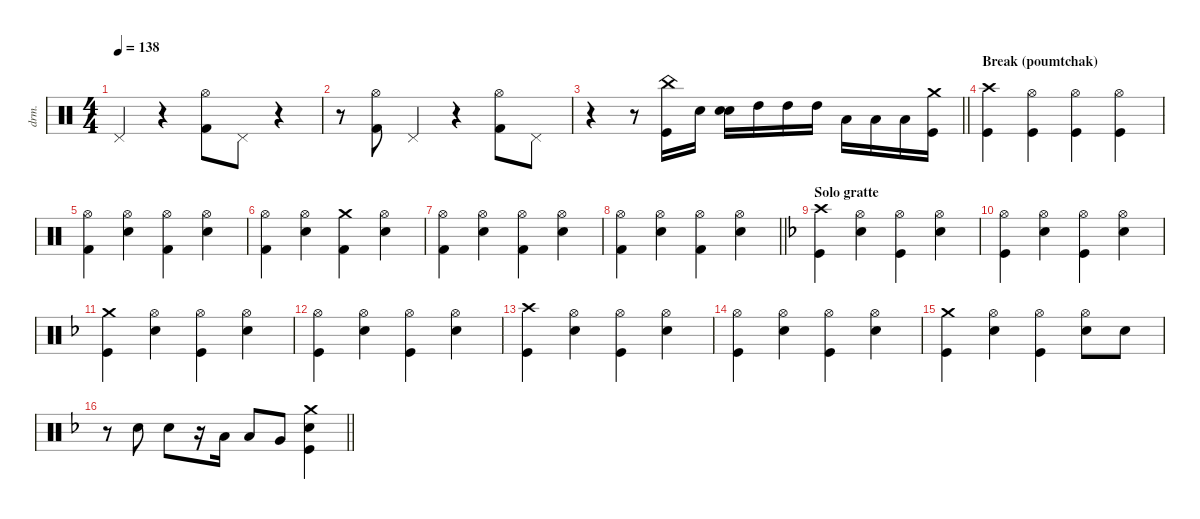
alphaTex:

\defaultSystemsLayout 4
\hideDynamics
\bracketExtendMode nobrackets
\track ("Percussions" "drm.") {instrument percussion}
\staff {score}
\articulation defaults
\ts (4 4)
\tempo 138
\clef neutral
\ks aminor "Pedal Hi-Hat (hit)".4{dy f beam Up}
r.4{beam Up} ("Kick (hit) 2" "Hi-Hat (open)").8{beam Down} "Pedal Hi-Hat (hit)".8{beam Down} r.4{beam Down} |
r.8{beam Down} ("Kick (hit) 2" "Hi-Hat (open)").8{beam Down} "Pedal Hi-Hat (hit)".4{beam Up} r.4{beam Up} ("Kick (hit) 2" "Hi-Hat (open)").8{beam Down} "Pedal Hi-Hat (hit)".8{beam Down} |
\barLineRight lightlight
r.4{beam Down} r.8{beam Down} ("China (hit)" "Kick (hit)").16{beam Down} "Snare (hit) 2".16{beam Down} ("Snare (hit) 2" "Snare (hit) 2").16{beam Down} "High Tom (hit)".16{beam Down} "High Tom (hit)".16{beam Down} "High Tom (hit)".16{beam Down} "Low Tom (hit)".16{beam Down} "Low Tom (hit)".16{beam Down} "Low Tom (hit)".16{beam Down} ("Kick (hit)" "Crash medium (hit)").16{beam Down} |
\section ("" "Break (poumtchak)")
("Crash high (hit)" "Kick (hit)").4{beam Down} ("Hi-Hat (open)" "Kick (hit)").4{beam Down} ("Hi-Hat (open)" "Kick (hit)").4{beam Down} ("Hi-Hat (open)" "Kick (hit)").4{beam Down} |
("Hi-Hat (open)" "Kick (hit) 2").4{beam Down} ("Hi-Hat (open)" "Snare (hit) 2").4{beam Down} ("Hi-Hat (open)" "Kick (hit) 2").4{beam Down} ("Hi-Hat (open)" "Snare (hit) 2").4{beam Down} |
("Hi-Hat (open)" "Kick (hit) 2").4{beam Down} ("Hi-Hat (open)" "Snare (hit) 2").4{beam Down} ("Crash medium (hit)" "Kick (hit) 2").4{beam Down} ("Hi-Hat (open)" "Snare (hit) 2").4{beam Down} |
("Hi-Hat (open)" "Kick (hit) 2").4{beam Down} ("Hi-Hat (open)" "Snare (hit) 2").4{beam Down} ("Hi-Hat (open)" "Kick (hit) 2").4{beam Down} ("Hi-Hat (open)" "Snare (hit) 2").4{beam Down} |
\barLineRight lightlight
("Hi-Hat (open)" "Kick (hit) 2").4{beam Down} ("Hi-Hat (open)" "Snare (hit) 2").4{beam Down} ("Hi-Hat (open)" "Kick (hit) 2").4{beam Down} ("Hi-Hat (open)" "Snare (hit) 2").4{beam Down} |
\section ("" "Solo gratte")
\ks dminor
("Crash high (hit)"{acc forcenatural} "Kick (hit)"{acc forcenatural}).4{beam Down} ("Hi-Hat (open)"{acc forcenatural} "Snare (hit) 2"{acc forcenatural}).4{beam Down} ("Hi-Hat (open)"{acc forcenatural} "Kick (hit)"{acc forcenatural}).4{beam Down} ("Hi-Hat (open)"{acc forcenatural} "Snare (hit) 2"{acc forcenatural}).4{beam Down} |
("Hi-Hat (open)"{acc forcenatural} "Kick (hit)"{acc forcenatural}).4{beam Down} ("Hi-Hat (open)"{acc forcenatural} "Snare (hit) 2"{acc forcenatural}).4{beam Down} ("Hi-Hat (open)"{acc forcenatural} "Kick (hit)"{acc forcenatural}).4{beam Down} ("Hi-Hat (open)"{acc forcenatural} "Snare (hit) 2"{acc forcenatural}).4{beam Down} |
("Crash medium (hit)"{acc forcenatural} "Kick (hit)"{acc forcenatural}).4{beam Down} ("Hi-Hat (open)"{acc forcenatural} "Snare (hit) 2"{acc forcenatural}).4{beam Down} ("Hi-Hat (open)"{acc forcenatural} "Kick (hit)"{acc forcenatural}).4{beam Down} ("Hi-Hat (open)"{acc forcenatural} "Snare (hit) 2"{acc forcenatural}).4{beam Down} |
("Hi-Hat (open)"{acc forcenatural} "Kick (hit)"{acc forcenatural}).4{beam Down} ("Hi-Hat (open)"{acc forcenatural} "Snare (hit) 2"{acc forcenatural}).4{beam Down} ("Hi-Hat (open)"{acc forcenatural} "Kick (hit)"{acc forcenatural}).4{beam Down} ("Hi-Hat (open)"{acc forcenatural} "Snare (hit) 2"{acc forcenatural}).4{beam Down} |
("Crash high (hit)"{acc forcenatural} "Kick (hit)"{acc forcenatural}).4{beam Down} ("Hi-Hat (open)"{acc forcenatural} "Snare (hit) 2"{acc forcenatural}).4{beam Down} ("Hi-Hat (open)"{acc forcenatural} "Kick (hit)"{acc forcenatural}).4{beam Down} ("Hi-Hat (open)"{acc forcenatural} "Snare (hit) 2"{acc forcenatural}).4{beam Down} |
("Hi-Hat (open)"{acc forcenatural} "Kick (hit)"{acc forcenatural}).4{beam Down} ("Hi-Hat (open)"{acc forcenatural} "Snare (hit) 2"{acc forcenatural}).4{beam Down} ("Hi-Hat (open)"{acc forcenatural} "Kick (hit)"{acc forcenatural}).4{beam Down} ("Hi-Hat (open)"{acc forcenatural} "Snare (hit) 2"{acc forcenatural}).4{beam Down} |
("Crash medium (hit)"{acc forcenatural} "Kick (hit)"{acc forcenatural}).4{beam Down} ("Hi-Hat (open)"{acc forcenatural} "Snare (hit) 2"{acc forcenatural}).4{beam Down} ("Hi-Hat (open)"{acc forcenatural} "Kick (hit)"{acc forcenatural}).4{beam Down} ("Hi-Hat (open)"{acc forcenatural} "Snare (hit) 2"{acc forcenatural}).8{beam Down} "Snare (hit) 2"{acc forcenatural}.8{beam Down} |
\barLineRight lightlight
r.8{beam Down} "Snare (hit) 2"{acc forcenatural}.8{beam Down} "Snare (hit) 2"{acc forcenatural}.8{beam Down} r.16{beam Down} "Low Tom (hit)"{acc forcenatural}.16{beam Down} "Low Tom (hit)"{acc forcenatural}.8{beam Up} "Very Low Tom (hit)"{acc forcenatural}.8{beam Up} ("Crash medium (hit)"{acc forcenatural} "Snare (hit) 2"{acc forcenatural} "Kick (hit)"{acc forcenatural}).4{beam Down}
